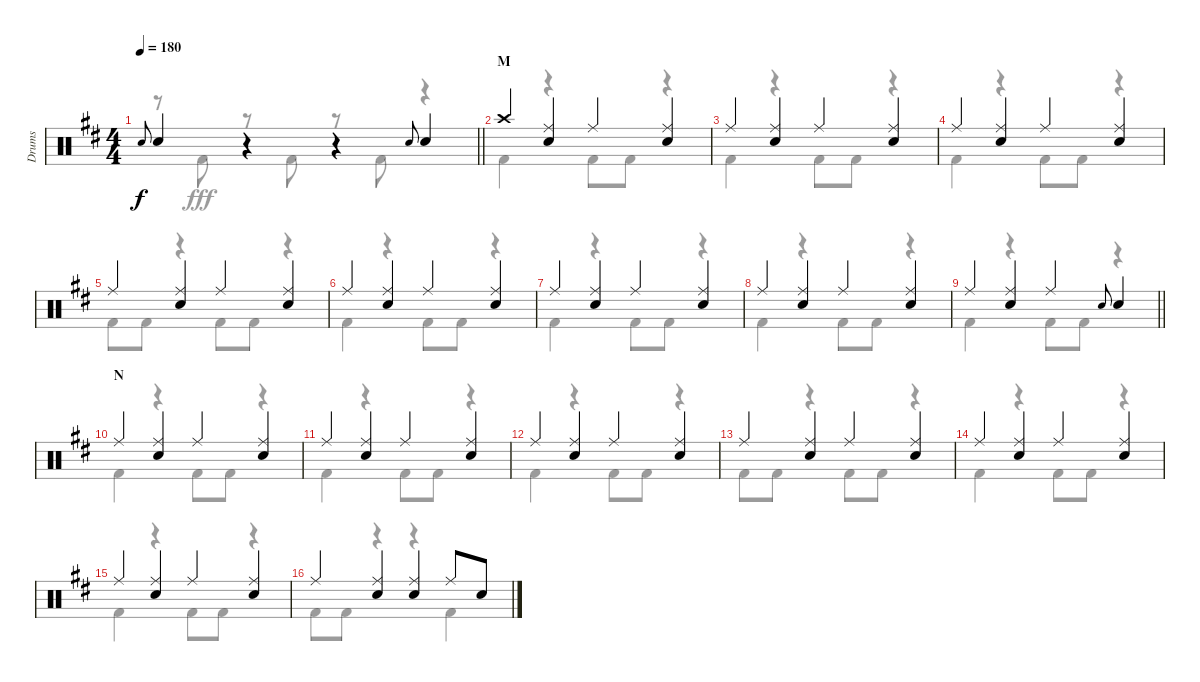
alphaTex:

\track ("Drums" "Drums") {instrument percussion}
\staff {score}
\articulation defaults
\voice
\ts (4 4)
\tempo 180
\clef neutral
\barLineRight lightlight
\ks d "Snare (hit) 2".8{gr onbeat dy f} "Snare (hit) 2".4
r.4 r.4 "Snare (hit) 2".8{gr onbeat} "Snare (hit) 2".4 |
\section ("" "M")
"Crash high (hit)".4 ("Ride (middle)" "Snare (hit) 2").4 "Ride (middle)".4 ("Ride (middle)" "Snare (hit) 2").4 |
"Ride (middle)".4 ("Ride (middle)" "Snare (hit) 2").4 "Ride (middle)".4 ("Ride (middle)" "Snare (hit) 2").4 |
"Ride (middle)".4 ("Ride (middle)" "Snare (hit) 2").4 "Ride (middle)".4 ("Ride (middle)" "Snare (hit) 2").4 |
"Ride (middle)".4 ("Ride (middle)" "Snare (hit) 2").4 "Ride (middle)".4 ("Ride (middle)" "Snare (hit) 2").4 |
"Ride (middle)".4 ("Ride (middle)" "Snare (hit) 2").4 "Ride (middle)".4 ("Ride (middle)" "Snare (hit) 2").4 |
"Ride (middle)".4 ("Ride (middle)" "Snare (hit) 2").4 "Ride (middle)".4 ("Ride (middle)" "Snare (hit) 2").4 |
"Ride (middle)".4 ("Ride (middle)" "Snare (hit) 2").4 "Ride (middle)".4 ("Ride (middle)" "Snare (hit) 2").4 |
\barLineRight lightlight "Ride (middle)".4
("Ride (middle)" "Snare (hit) 2").4 "Ride (middle)".4 "Snare (hit) 2".8{gr onbeat} "Snare (hit) 2".4 |
\section ("" "N")
"Ride (middle)".4 ("Ride (middle)" "Snare (hit) 2").4 "Ride (middle)".4 ("Ride (middle)" "Snare (hit) 2").4 |
"Ride (middle)".4 ("Ride (middle)" "Snare (hit) 2").4 "Ride (middle)".4 ("Ride (middle)" "Snare (hit) 2").4 |
"Ride (middle)".4 ("Ride (middle)" "Snare (hit) 2").4 "Ride (middle)".4 ("Ride (middle)" "Snare (hit) 2").4 |
"Ride (middle)".4 ("Ride (middle)" "Snare (hit) 2").4 "Ride (middle)".4 ("Ride (middle)" "Snare (hit) 2").4 |
"Ride (middle)".4 ("Ride (middle)" "Snare (hit) 2").4 "Ride (middle)".4 ("Ride (middle)" "Snare (hit) 2").4 |
"Ride (middle)".4 ("Ride (middle)" "Snare (hit) 2").4 "Ride (middle)".4 ("Ride (middle)" "Snare (hit) 2").4 |
"Ride (middle)".4 ("Ride (middle)" "Snare (hit) 2").4 ("Ride (middle)" "Snare (hit) 2").4 "Ride (middle)".8 "Snare (hit) 2".8
\voice
\clef neutral
\ottava regular
\simile none
\barLineRight lightlight
\ks d
r.8{dy fff} "Kick (hit) 2".8 r.8 "Kick (hit) 2".8 r.8 "Kick (hit) 2".8 r.4 |
"Kick (hit) 2".4 r.4 "Kick (hit) 2".8 "Kick (hit) 2".8 r.4 |
"Kick (hit) 2".4 r.4 "Kick (hit) 2".8 "Kick (hit) 2".8 r.4 |
"Kick (hit) 2".4 r.4 "Kick (hit) 2".8 "Kick (hit) 2".8 r.4 |
"Kick (hit) 2".8 "Kick (hit) 2".8 r.4 "Kick (hit) 2".8 "Kick (hit) 2".8 r.4 |
"Kick (hit) 2".4 r.4 "Kick (hit) 2".8 "Kick (hit) 2".8 r.4 |
"Kick (hit) 2".4 r.4 "Kick (hit) 2".8 "Kick (hit) 2".8 r.4 |
"Kick (hit) 2".4 r.4 "Kick (hit) 2".8 "Kick (hit) 2".8 r.4 |
\barLineRight lightlight "Kick (hit) 2".4
r.4 "Kick (hit) 2".8 "Kick (hit) 2".8 r.4 |
"Kick (hit) 2".4 r.4 "Kick (hit) 2".8 "Kick (hit) 2".8 r.4 |
"Kick (hit) 2".4 r.4 "Kick (hit) 2".8 "Kick (hit) 2".8 r.4 |
"Kick (hit) 2".4 r.4 "Kick (hit) 2".8 "Kick (hit) 2".8 r.4 |
"Kick (hit) 2".8 "Kick (hit) 2".8 r.4 "Kick (hit) 2".8 "Kick (hit) 2".8 r.4 |
"Kick (hit) 2".4 r.4 "Kick (hit) 2".8 "Kick (hit) 2".8 r.4 |
"Kick (hit) 2".4 r.4 "Kick (hit) 2".8 "Kick (hit) 2".8 r.4 |
"Kick (hit) 2".8 "Kick (hit) 2".8 r.4 r.4 "Kick (hit) 2".4
